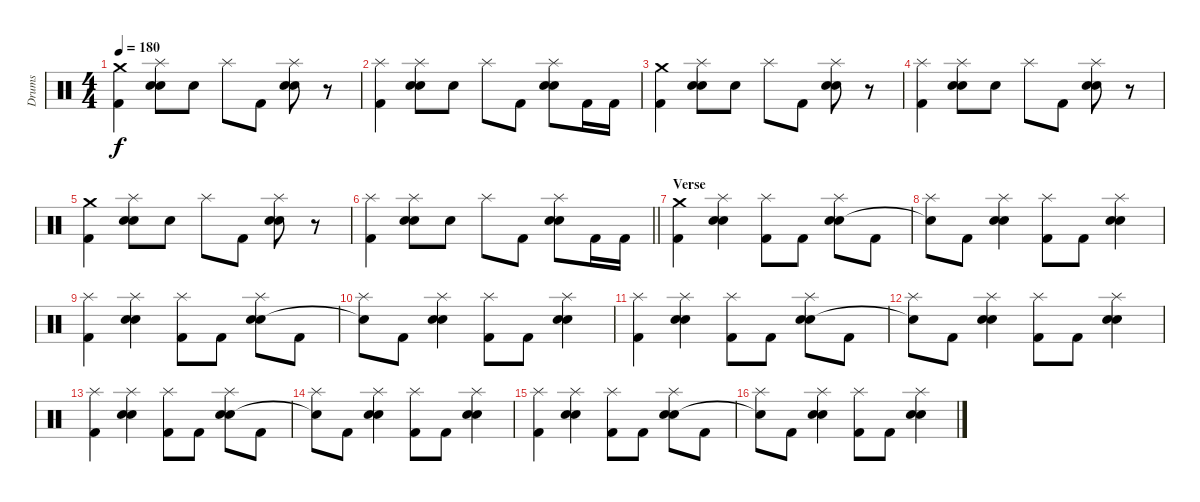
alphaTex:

\track ("Drums" "Drums") {instrument percussion}
\staff {score}
\articulation defaults
\ts (4 4)
\tempo 180
\clef neutral
\ks c
("Crash medium (hit)" "Kick (hit) 2").4{dy f} ("Splash (hit)" "Electric Snare (hit)" "Snare (hit) 2").8 "Electric Snare (hit)".8 "Splash (hit)".8 "Kick (hit) 2".8 ("Splash (hit)" "Electric Snare (hit)" "Snare (hit) 2").8 r.8 |
("Splash (hit)" "Kick (hit) 2").4 ("Splash (hit)" "Electric Snare (hit)" "Snare (hit) 2").8 "Electric Snare (hit)".8 "Splash (hit)".8 "Kick (hit) 2".8 ("Splash (hit)" "Electric Snare (hit)" "Snare (hit) 2").8 "Kick (hit) 2".16 "Kick (hit) 2".16 |
("Crash medium (hit)" "Kick (hit) 2").4 ("Splash (hit)" "Electric Snare (hit)" "Snare (hit) 2").8 "Electric Snare (hit)".8 "Splash (hit)".8 "Kick (hit) 2".8 ("Splash (hit)" "Electric Snare (hit)" "Snare (hit) 2").8 r.8 |
("Splash (hit)" "Kick (hit) 2").4 ("Splash (hit)" "Electric Snare (hit)" "Snare (hit) 2").8 "Electric Snare (hit)".8 "Splash (hit)".8 "Kick (hit) 2".8 ("Splash (hit)" "Electric Snare (hit)" "Snare (hit) 2").8 r.8 |
("Crash medium (hit)" "Kick (hit) 2").4 ("Splash (hit)" "Electric Snare (hit)" "Snare (hit) 2").8 "Electric Snare (hit)".8 "Splash (hit)".8 "Kick (hit) 2".8 ("Splash (hit)" "Electric Snare (hit)" "Snare (hit) 2").8 r.8 |
\barLineRight lightlight
("Splash (hit)" "Kick (hit) 2").4 ("Splash (hit)" "Electric Snare (hit)" "Snare (hit) 2").8 "Electric Snare (hit)".8 "Splash (hit)".8 "Kick (hit) 2".8 ("Splash (hit)" "Electric Snare (hit)" "Snare (hit) 2").8 "Kick (hit) 2".16 "Kick (hit) 2".16 |
\section ("" "Verse")
("Crash medium (hit)" "Kick (hit) 2").4 ("Splash (hit)" "Electric Snare (hit)" "Snare (hit) 2").4 ("Splash (hit)" "Kick (hit) 2").8 "Kick (hit) 2".8 ("Splash (hit)" "Electric Snare (hit)" "Snare (hit) 2").8 "Kick (hit) 2".8 |
("Splash (hit)" "Snare (hit)"{t}).8 "Kick (hit) 2".8 ("Splash (hit)" "Electric Snare (hit)" "Snare (hit) 2").4 ("Splash (hit)" "Kick (hit) 2").8 "Kick (hit) 2".8 ("Splash (hit)" "Electric Snare (hit)" "Snare (hit) 2").4 |
("Splash (hit)" "Kick (hit) 2").4 ("Splash (hit)" "Electric Snare (hit)" "Snare (hit) 2").4 ("Splash (hit)" "Kick (hit) 2").8 "Kick (hit) 2".8 ("Splash (hit)" "Electric Snare (hit)" "Snare (hit) 2").8 "Kick (hit) 2".8 |
("Splash (hit)" "Snare (hit)"{t}).8 "Kick (hit) 2".8 ("Splash (hit)" "Electric Snare (hit)" "Snare (hit) 2").4 ("Splash (hit)" "Kick (hit) 2").8 "Kick (hit) 2".8 ("Splash (hit)" "Electric Snare (hit)" "Snare (hit) 2").4 |
("Splash (hit)" "Kick (hit) 2").4 ("Splash (hit)" "Electric Snare (hit)" "Snare (hit) 2").4 ("Splash (hit)" "Kick (hit) 2").8 "Kick (hit) 2".8 ("Splash (hit)" "Electric Snare (hit)" "Snare (hit) 2").8 "Kick (hit) 2".8 |
("Splash (hit)" "Snare (hit)"{t}).8 "Kick (hit) 2".8 ("Splash (hit)" "Electric Snare (hit)" "Snare (hit) 2").4 ("Splash (hit)" "Kick (hit) 2").8 "Kick (hit) 2".8 ("Splash (hit)" "Electric Snare (hit)" "Snare (hit) 2").4 |
("Splash (hit)" "Kick (hit) 2").4 ("Splash (hit)" "Electric Snare (hit)" "Snare (hit) 2").4 ("Splash (hit)" "Kick (hit) 2").8 "Kick (hit) 2".8 ("Splash (hit)" "Electric Snare (hit)" "Snare (hit) 2").8 "Kick (hit) 2".8 |
("Splash (hit)" "Snare (hit)"{t}).8 "Kick (hit) 2".8 ("Splash (hit)" "Electric Snare (hit)" "Snare (hit) 2").4 ("Splash (hit)" "Kick (hit) 2").8 "Kick (hit) 2".8 ("Splash (hit)" "Electric Snare (hit)" "Snare (hit) 2").4 |
("Splash (hit)" "Kick (hit) 2").4 ("Splash (hit)" "Electric Snare (hit)" "Snare (hit) 2").4 ("Splash (hit)" "Kick (hit) 2").8 "Kick (hit) 2".8 ("Splash (hit)" "Electric Snare (hit)" "Snare (hit) 2").8 "Kick (hit) 2".8 |
("Splash (hit)" "Snare (hit)"{t}).8 "Kick (hit) 2".8 ("Splash (hit)" "Electric Snare (hit)" "Snare (hit) 2").4 ("Splash (hit)" "Kick (hit) 2").8 "Kick (hit) 2".8 ("Splash (hit)" "Electric Snare (hit)" "Snare (hit) 2").4
